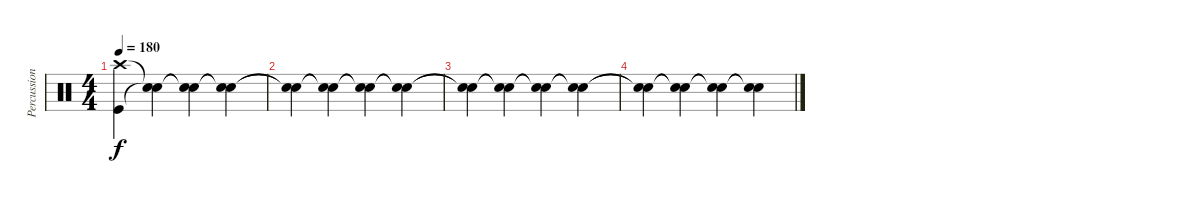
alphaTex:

\track ("Percussion" "Percussion") {mute instrument percussion}
\staff {score}
\articulation defaults
\ts (4 4)
\tempo 180
\clef neutral
\ks c
("Crash high (hit)" "Kick (hit)").4{dy f} ("Snare (hit)"{t} "Snare (hit)"{t}).4 ("Snare (hit)"{t} "Snare (hit)"{t}).4 ("Snare (hit)"{t} "Snare (hit)"{t}).4 |
("Snare (hit)"{t} "Snare (hit)"{t}).4 ("Snare (hit)"{t} "Snare (hit)"{t}).4 ("Snare (hit)"{t} "Snare (hit)"{t}).4 ("Snare (hit)"{t} "Snare (hit)"{t}).4 |
("Snare (hit)"{t} "Snare (hit)"{t}).4 ("Snare (hit)"{t} "Snare (hit)"{t}).4 ("Snare (hit)"{t} "Snare (hit)"{t}).4 ("Snare (hit)"{t} "Snare (hit)"{t}).4 |
("Snare (hit)"{t} "Snare (hit)"{t}).4 ("Snare (hit)"{t} "Snare (hit)"{t}).4 ("Snare (hit)"{t} "Snare (hit)"{t}).4 ("Snare (hit)"{t} "Snare (hit)"{t}).4
